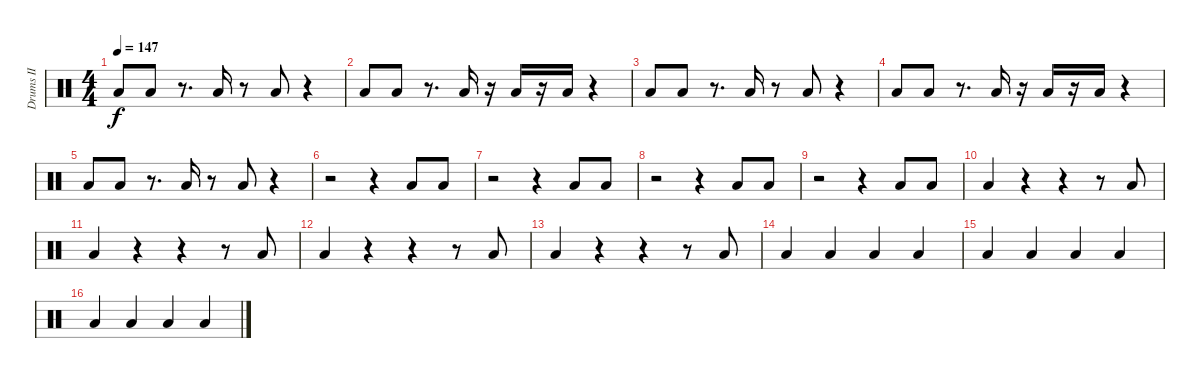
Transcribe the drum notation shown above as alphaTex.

\track ("Drums II" "Drums II") {instrument percussion}
\staff {score}
\articulation defaults
\ts (4 4)
\tempo 147
\clef neutral
\ks c "Low Tom (hit)".8{dy f} "Low Tom (hit)".8
r.8{d} "Low Tom (hit)".16 r.8 "Low Tom (hit)".8 r.4 |
"Low Tom (hit)".8 "Low Tom (hit)".8 r.8{d} "Low Tom (hit)".16 r.16 "Low Tom (hit)".16 r.16 "Low Tom (hit)".16 r.4 |
"Low Tom (hit)".8 "Low Tom (hit)".8 r.8{d} "Low Tom (hit)".16 r.8 "Low Tom (hit)".8 r.4 |
"Low Tom (hit)".8 "Low Tom (hit)".8 r.8{d} "Low Tom (hit)".16 r.16 "Low Tom (hit)".16 r.16 "Low Tom (hit)".16 r.4 |
"Low Tom (hit)".8 "Low Tom (hit)".8 r.8{d} "Low Tom (hit)".16 r.8 "Low Tom (hit)".8 r.4 |
r.2 r.4 "Low Tom (hit)".8 "Low Tom (hit)".8 |
r.2 r.4 "Low Tom (hit)".8 "Low Tom (hit)".8 |
r.2 r.4 "Low Tom (hit)".8 "Low Tom (hit)".8 |
r.2 r.4 "Low Tom (hit)".8 "Low Tom (hit)".8 |
"Low Tom (hit)".4 r.4 r.4 r.8 "Low Tom (hit)".8 |
"Low Tom (hit)".4 r.4 r.4 r.8 "Low Tom (hit)".8 |
"Low Tom (hit)".4 r.4 r.4 r.8 "Low Tom (hit)".8 |
"Low Tom (hit)".4 r.4 r.4 r.8 "Low Tom (hit)".8 |
"Low Tom (hit)".4 "Low Tom (hit)".4 "Low Tom (hit)".4 "Low Tom (hit)".4 |
"Low Tom (hit)".4 "Low Tom (hit)".4 "Low Tom (hit)".4 "Low Tom (hit)".4 |
"Low Tom (hit)".4 "Low Tom (hit)".4 "Low Tom (hit)".4 "Low Tom (hit)".4
